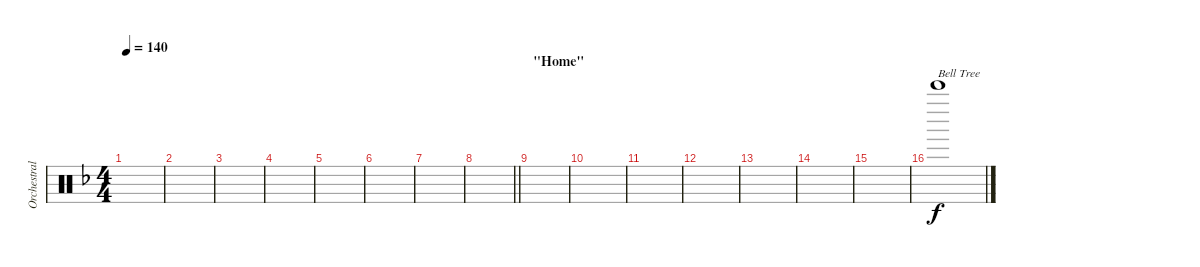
\track ("Orchestral Percussion I" "Orchestral") {instrument percussion}
\staff {score}
\articulation defaults
\ts (4 4)
\tempo 140
\clef neutral
\ks dminor
|
|
|
|
|
|
|
\barLineRight lightlight
|
\section ("" "\"Home\"")
|
|
|
|
|
|
|
"Bell Tree (hit)".1{txt "Bell Tree"}
